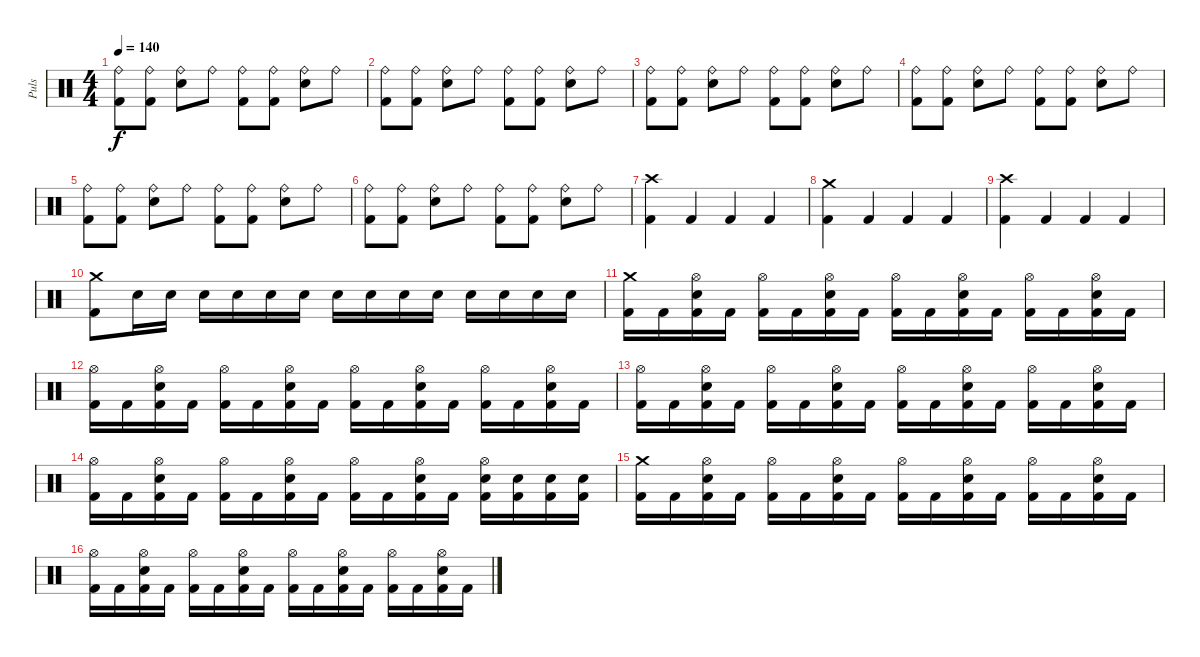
\track ("Puls" "Puls") {instrument percussion}
\staff {score}
\articulation defaults
\ts (4 4)
\tempo 140
\clef neutral
\ks c
("Ride (bell)" "Kick (hit) 2").8{dy f} ("Ride (bell)" "Kick (hit) 2").8 ("Ride (bell)" "Snare (hit) 2").8 "Ride (bell)".8 ("Ride (bell)" "Kick (hit) 2").8 ("Ride (bell)" "Kick (hit) 2").8 ("Ride (bell)" "Snare (hit) 2").8 "Ride (bell)".8 |
("Ride (bell)" "Kick (hit) 2").8 ("Ride (bell)" "Kick (hit) 2").8 ("Ride (bell)" "Snare (hit) 2").8 "Ride (bell)".8 ("Ride (bell)" "Kick (hit) 2").8 ("Ride (bell)" "Kick (hit) 2").8 ("Ride (bell)" "Snare (hit) 2").8 "Ride (bell)".8 |
("Ride (bell)" "Kick (hit) 2").8 ("Ride (bell)" "Kick (hit) 2").8 ("Ride (bell)" "Snare (hit) 2").8 "Ride (bell)".8 ("Ride (bell)" "Kick (hit) 2").8 ("Ride (bell)" "Kick (hit) 2").8 ("Ride (bell)" "Snare (hit) 2").8 "Ride (bell)".8 |
("Ride (bell)" "Kick (hit) 2").8 ("Ride (bell)" "Kick (hit) 2").8 ("Ride (bell)" "Snare (hit) 2").8 "Ride (bell)".8 ("Ride (bell)" "Kick (hit) 2").8 ("Ride (bell)" "Kick (hit) 2").8 ("Ride (bell)" "Snare (hit) 2").8 "Ride (bell)".8 |
("Ride (bell)" "Kick (hit) 2").8 ("Ride (bell)" "Kick (hit) 2").8 ("Ride (bell)" "Snare (hit) 2").8 "Ride (bell)".8 ("Ride (bell)" "Kick (hit) 2").8 ("Ride (bell)" "Kick (hit) 2").8 ("Ride (bell)" "Snare (hit) 2").8 "Ride (bell)".8 |
("Ride (bell)" "Kick (hit) 2").8 ("Ride (bell)" "Kick (hit) 2").8 ("Ride (bell)" "Snare (hit) 2").8 "Ride (bell)".8 ("Ride (bell)" "Kick (hit) 2").8 ("Ride (bell)" "Kick (hit) 2").8 ("Ride (bell)" "Snare (hit) 2").8 "Ride (bell)".8 |
("Crash high (hit)" "Kick (hit) 2").4 "Kick (hit) 2".4 "Kick (hit) 2".4 "Kick (hit) 2".4 |
("Crash medium (hit)" "Kick (hit) 2").4 "Kick (hit) 2".4 "Kick (hit) 2".4 "Kick (hit) 2".4 |
("Crash high (hit)" "Kick (hit) 2").4 "Kick (hit) 2".4 "Kick (hit) 2".4 "Kick (hit) 2".4 |
("Crash medium (hit)" "Kick (hit) 2").8 "Snare (hit) 2".16 "Snare (hit) 2".16 "Snare (hit) 2".16 "Snare (hit) 2".16 "Snare (hit) 2".16 "Snare (hit) 2".16 "Snare (hit) 2".16 "Snare (hit) 2".16 "Snare (hit) 2".16 "Snare (hit) 2".16 "Snare (hit) 2".16 "Snare (hit) 2".16 "Snare (hit) 2".16 "Snare (hit) 2".16 |
("Crash medium (hit)" "Kick (hit) 2").16 "Kick (hit) 2".16 ("Hi-Hat (open)" "Snare (hit) 2" "Kick (hit) 2").16 "Kick (hit) 2".16 ("Hi-Hat (open)" "Kick (hit) 2").16 "Kick (hit) 2".16 ("Hi-Hat (open)" "Snare (hit) 2" "Kick (hit) 2").16 "Kick (hit) 2".16 ("Hi-Hat (open)" "Kick (hit) 2").16 "Kick (hit) 2".16 ("Hi-Hat (open)" "Snare (hit) 2" "Kick (hit) 2").16 "Kick (hit) 2".16 ("Hi-Hat (open)" "Kick (hit) 2").16 "Kick (hit) 2".16 ("Hi-Hat (open)" "Snare (hit) 2" "Kick (hit) 2").16 "Kick (hit) 2".16 |
("Hi-Hat (open)" "Kick (hit) 2").16 "Kick (hit) 2".16 ("Hi-Hat (open)" "Snare (hit) 2" "Kick (hit) 2").16 "Kick (hit) 2".16 ("Hi-Hat (open)" "Kick (hit) 2").16 "Kick (hit) 2".16 ("Hi-Hat (open)" "Snare (hit) 2" "Kick (hit) 2").16 "Kick (hit) 2".16 ("Hi-Hat (open)" "Kick (hit) 2").16 "Kick (hit) 2".16 ("Hi-Hat (open)" "Snare (hit) 2" "Kick (hit) 2").16 "Kick (hit) 2".16 ("Hi-Hat (open)" "Kick (hit) 2").16 "Kick (hit) 2".16 ("Hi-Hat (open)" "Snare (hit) 2" "Kick (hit) 2").16 "Kick (hit) 2".16 |
("Hi-Hat (open)" "Kick (hit) 2").16 "Kick (hit) 2".16 ("Hi-Hat (open)" "Snare (hit) 2" "Kick (hit) 2").16 "Kick (hit) 2".16 ("Hi-Hat (open)" "Kick (hit) 2").16 "Kick (hit) 2".16 ("Hi-Hat (open)" "Snare (hit) 2" "Kick (hit) 2").16 "Kick (hit) 2".16 ("Hi-Hat (open)" "Kick (hit) 2").16 "Kick (hit) 2".16 ("Hi-Hat (open)" "Snare (hit) 2" "Kick (hit) 2").16 "Kick (hit) 2".16 ("Hi-Hat (open)" "Kick (hit) 2").16 "Kick (hit) 2".16 ("Hi-Hat (open)" "Snare (hit) 2" "Kick (hit) 2").16 "Kick (hit) 2".16 |
("Hi-Hat (open)" "Kick (hit) 2").16 "Kick (hit) 2".16 ("Hi-Hat (open)" "Snare (hit) 2" "Kick (hit) 2").16 "Kick (hit) 2".16 ("Hi-Hat (open)" "Kick (hit) 2").16 "Kick (hit) 2".16 ("Hi-Hat (open)" "Snare (hit) 2" "Kick (hit) 2").16 "Kick (hit) 2".16 ("Hi-Hat (open)" "Kick (hit) 2").16 "Kick (hit) 2".16 ("Hi-Hat (open)" "Snare (hit) 2" "Kick (hit) 2").16 "Kick (hit) 2".16 ("Hi-Hat (open)" "Snare (hit) 2" "Kick (hit) 2").16 ("Snare (hit) 2" "Kick (hit) 2").16 ("Snare (hit) 2" "Kick (hit) 2").16 ("Snare (hit) 2" "Kick (hit) 2").16 |
("Crash medium (hit)" "Kick (hit) 2").16 "Kick (hit) 2".16 ("Hi-Hat (open)" "Snare (hit) 2" "Kick (hit) 2").16 "Kick (hit) 2".16 ("Hi-Hat (open)" "Kick (hit) 2").16 "Kick (hit) 2".16 ("Hi-Hat (open)" "Snare (hit) 2" "Kick (hit) 2").16 "Kick (hit) 2".16 ("Hi-Hat (open)" "Kick (hit) 2").16 "Kick (hit) 2".16 ("Hi-Hat (open)" "Snare (hit) 2" "Kick (hit) 2").16 "Kick (hit) 2".16 ("Hi-Hat (open)" "Kick (hit) 2").16 "Kick (hit) 2".16 ("Hi-Hat (open)" "Snare (hit) 2" "Kick (hit) 2").16 "Kick (hit) 2".16 |
("Hi-Hat (open)" "Kick (hit) 2").16 "Kick (hit) 2".16 ("Hi-Hat (open)" "Snare (hit) 2" "Kick (hit) 2").16 "Kick (hit) 2".16 ("Hi-Hat (open)" "Kick (hit) 2").16 "Kick (hit) 2".16 ("Hi-Hat (open)" "Snare (hit) 2" "Kick (hit) 2").16 "Kick (hit) 2".16 ("Hi-Hat (open)" "Kick (hit) 2").16 "Kick (hit) 2".16 ("Hi-Hat (open)" "Snare (hit) 2" "Kick (hit) 2").16 "Kick (hit) 2".16 ("Hi-Hat (open)" "Kick (hit) 2").16 "Kick (hit) 2".16 ("Hi-Hat (open)" "Snare (hit) 2" "Kick (hit) 2").16 "Kick (hit) 2".16
